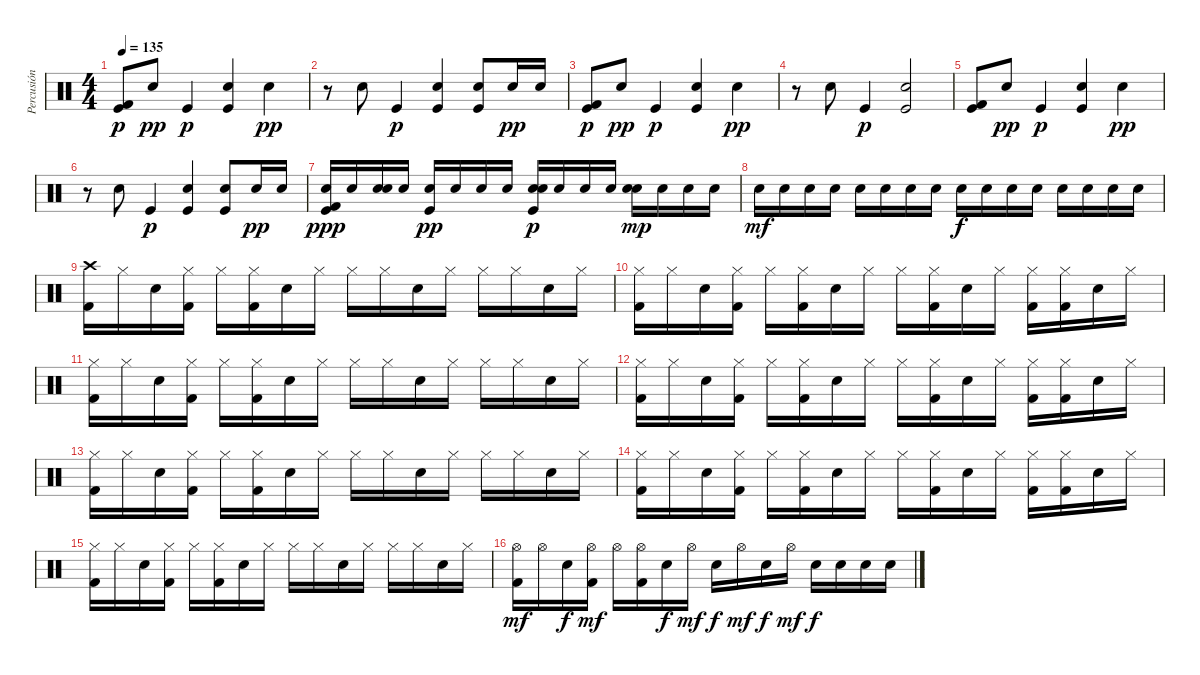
\track ("Percusión" "Percusión") {instrument percussion}
\staff {score}
\articulation defaults
\ts (4 4)
\tempo 135
\clef neutral
\ks c
("Kick (hit)" "Kick (hit) 2").8{dy p} "Electric Snare (hit)".8{dy pp} "Kick (hit)".4{dy p} ("Electric Snare (hit)" "Kick (hit)").4 "Electric Snare (hit)".4{dy pp balance 16} |
r.8 "Electric Snare (hit)".8{balance 0} "Kick (hit)".4{dy p balance 8} ("Electric Snare (hit)" "Kick (hit)").4 ("Electric Snare (hit)" "Kick (hit)").8 "Electric Snare (hit)".16{dy pp} "Electric Snare (hit)".16 |
("Kick (hit)" "Kick (hit) 2").8{dy p} "Electric Snare (hit)".8{dy pp} "Kick (hit)".4{dy p} ("Electric Snare (hit)" "Kick (hit)").4 "Electric Snare (hit)".4{dy pp balance 16} |
r.8 "Electric Snare (hit)".8{balance 0} "Kick (hit)".4{dy p balance 8} ("Electric Snare (hit)" "Kick (hit)").2 |
("Kick (hit)" "Kick (hit) 2").8 "Electric Snare (hit)".8{dy pp} "Kick (hit)".4{dy p} ("Electric Snare (hit)" "Kick (hit)").4 "Electric Snare (hit)".4{dy pp balance 16} |
r.8 "Electric Snare (hit)".8{balance 0} "Kick (hit)".4{dy p balance 8} ("Electric Snare (hit)" "Kick (hit)").4 ("Electric Snare (hit)" "Kick (hit)").8 "Electric Snare (hit)".16{dy pp} "Electric Snare (hit)".16 |
("Kick (hit)" "Kick (hit) 2" "Electric Snare (hit)").16{dy ppp} "Electric Snare (hit)".16 ("Electric Snare (hit)" "Electric Snare (hit)").16 "Electric Snare (hit)".16 ("Kick (hit)" "Electric Snare (hit)").16{dy pp} "Electric Snare (hit)".16 "Electric Snare (hit)".16 "Electric Snare (hit)".16 ("Electric Snare (hit)" "Kick (hit)" "Electric Snare (hit)").16{dy p} "Electric Snare (hit)".16 "Electric Snare (hit)".16 "Electric Snare (hit)".16 ("Electric Snare (hit)" "Electric Snare (hit)").16{dy mp} "Electric Snare (hit)".16 "Electric Snare (hit)".16 "Electric Snare (hit)".16 |
"Electric Snare (hit)".16{dy mf} "Electric Snare (hit)".16 "Electric Snare (hit)".16 "Electric Snare (hit)".16 "Electric Snare (hit)".16 "Electric Snare (hit)".16 "Electric Snare (hit)".16 "Electric Snare (hit)".16 "Electric Snare (hit)".16{dy f} "Electric Snare (hit)".16 "Electric Snare (hit)".16 "Electric Snare (hit)".16 "Electric Snare (hit)".16 "Electric Snare (hit)".16 "Electric Snare (hit)".16 "Electric Snare (hit)".16 |
("Crash high (hit)" "Kick (hit) 2").16 "Hi-Hat (closed)".16 "Electric Snare (hit)".16 ("Hi-Hat (closed)" "Kick (hit) 2").16 "Hi-Hat (closed)".16 ("Hi-Hat (closed)" "Kick (hit) 2").16 "Electric Snare (hit)".16 "Hi-Hat (closed)".16 "Hi-Hat (closed)".16 "Hi-Hat (closed)".16 "Electric Snare (hit)".16 "Hi-Hat (closed)".16 "Hi-Hat (closed)".16 "Hi-Hat (closed)".16 "Electric Snare (hit)".16 "Hi-Hat (closed)".16 |
("Hi-Hat (closed)" "Kick (hit) 2").16 "Hi-Hat (closed)".16 "Electric Snare (hit)".16 ("Hi-Hat (closed)" "Kick (hit) 2").16 "Hi-Hat (closed)".16 ("Hi-Hat (closed)" "Kick (hit) 2").16 "Electric Snare (hit)".16 "Hi-Hat (closed)".16 "Hi-Hat (closed)".16 ("Hi-Hat (closed)" "Kick (hit) 2").16 "Electric Snare (hit)".16 "Hi-Hat (closed)".16 ("Hi-Hat (closed)" "Kick (hit) 2").16 ("Hi-Hat (closed)" "Kick (hit) 2").16 "Electric Snare (hit)".16 "Hi-Hat (closed)".16 |
("Hi-Hat (closed)" "Kick (hit) 2").16 "Hi-Hat (closed)".16 "Electric Snare (hit)".16 ("Hi-Hat (closed)" "Kick (hit) 2").16 "Hi-Hat (closed)".16 ("Hi-Hat (closed)" "Kick (hit) 2").16 "Electric Snare (hit)".16 "Hi-Hat (closed)".16 "Hi-Hat (closed)".16 "Hi-Hat (closed)".16 "Electric Snare (hit)".16 "Hi-Hat (closed)".16 "Hi-Hat (closed)".16 "Hi-Hat (closed)".16 "Electric Snare (hit)".16 "Hi-Hat (closed)".16 |
("Hi-Hat (closed)" "Kick (hit) 2").16 "Hi-Hat (closed)".16 "Electric Snare (hit)".16 ("Hi-Hat (closed)" "Kick (hit) 2").16 "Hi-Hat (closed)".16 ("Hi-Hat (closed)" "Kick (hit) 2").16 "Electric Snare (hit)".16 "Hi-Hat (closed)".16 "Hi-Hat (closed)".16 ("Hi-Hat (closed)" "Kick (hit) 2").16 "Electric Snare (hit)".16 "Hi-Hat (closed)".16 ("Hi-Hat (closed)" "Kick (hit) 2").16 ("Hi-Hat (closed)" "Kick (hit) 2").16 "Electric Snare (hit)".16 "Hi-Hat (closed)".16 |
("Hi-Hat (closed)" "Kick (hit) 2").16 "Hi-Hat (closed)".16 "Electric Snare (hit)".16 ("Hi-Hat (closed)" "Kick (hit) 2").16 "Hi-Hat (closed)".16 ("Hi-Hat (closed)" "Kick (hit) 2").16 "Electric Snare (hit)".16 "Hi-Hat (closed)".16 "Hi-Hat (closed)".16 "Hi-Hat (closed)".16 "Electric Snare (hit)".16 "Hi-Hat (closed)".16 "Hi-Hat (closed)".16 "Hi-Hat (closed)".16 "Electric Snare (hit)".16 "Hi-Hat (closed)".16 |
("Hi-Hat (closed)" "Kick (hit) 2").16 "Hi-Hat (closed)".16 "Electric Snare (hit)".16 ("Hi-Hat (closed)" "Kick (hit) 2").16 "Hi-Hat (closed)".16 ("Hi-Hat (closed)" "Kick (hit) 2").16 "Electric Snare (hit)".16 "Hi-Hat (closed)".16 "Hi-Hat (closed)".16 ("Hi-Hat (closed)" "Kick (hit) 2").16 "Electric Snare (hit)".16 "Hi-Hat (closed)".16 ("Hi-Hat (closed)" "Kick (hit) 2").16 ("Hi-Hat (closed)" "Kick (hit) 2").16 "Electric Snare (hit)".16 "Hi-Hat (closed)".16 |
("Hi-Hat (closed)" "Kick (hit) 2").16 "Hi-Hat (closed)".16 "Electric Snare (hit)".16 ("Hi-Hat (closed)" "Kick (hit) 2").16 "Hi-Hat (closed)".16 ("Hi-Hat (closed)" "Kick (hit) 2").16 "Electric Snare (hit)".16 "Hi-Hat (closed)".16 "Hi-Hat (closed)".16 "Hi-Hat (closed)".16 "Electric Snare (hit)".16 "Hi-Hat (closed)".16 "Hi-Hat (closed)".16 "Hi-Hat (closed)".16 "Electric Snare (hit)".16 "Hi-Hat (closed)".16 |
("Hi-Hat (open)" "Kick (hit) 2").16{dy mf} "Hi-Hat (open)".16 "Electric Snare (hit)".16{dy f} ("Hi-Hat (open)" "Kick (hit) 2").16{dy mf} "Hi-Hat (open)".16 ("Hi-Hat (open)" "Kick (hit) 2").16 "Electric Snare (hit)".16{dy f} "Hi-Hat (open)".16{dy mf} "Electric Snare (hit)".16{dy f} "Hi-Hat (open)".16{dy mf} "Electric Snare (hit)".16{dy f} "Hi-Hat (open)".16{dy mf} "Electric Snare (hit)".16{dy f} "Electric Snare (hit)".16 "Electric Snare (hit)".16 "Electric Snare (hit)".16
